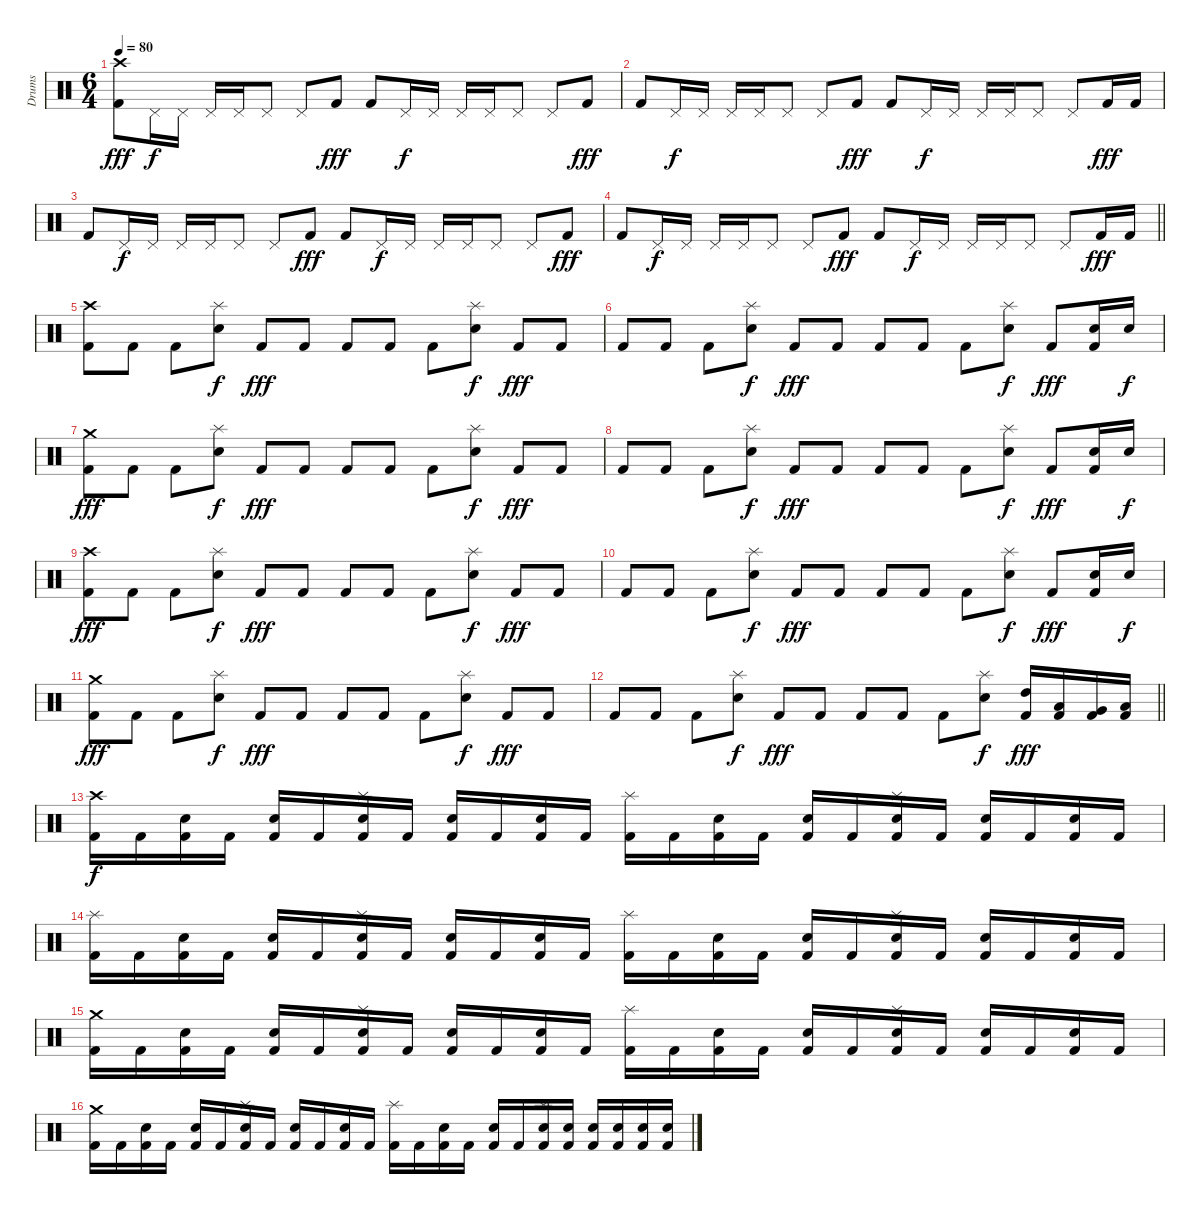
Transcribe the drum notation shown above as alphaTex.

\track ("Drums" "Drums") {instrument percussion}
\staff {score}
\articulation defaults
\ts (6 4)
\tempo 80
\clef neutral
\ks c
("Crash high (hit)" "Kick (hit) 2").8{dy fff} "Pedal Hi-Hat (hit)".16{dy f} "Pedal Hi-Hat (hit)".16 "Pedal Hi-Hat (hit)".16 "Pedal Hi-Hat (hit)".16 "Pedal Hi-Hat (hit)".8 "Pedal Hi-Hat (hit)".8 "Kick (hit) 2".8{dy fff} "Kick (hit) 2".8 "Pedal Hi-Hat (hit)".16{dy f} "Pedal Hi-Hat (hit)".16 "Pedal Hi-Hat (hit)".16 "Pedal Hi-Hat (hit)".16 "Pedal Hi-Hat (hit)".8 "Pedal Hi-Hat (hit)".8 "Kick (hit) 2".8{dy fff} |
"Kick (hit) 2".8 "Pedal Hi-Hat (hit)".16{dy f} "Pedal Hi-Hat (hit)".16 "Pedal Hi-Hat (hit)".16 "Pedal Hi-Hat (hit)".16 "Pedal Hi-Hat (hit)".8 "Pedal Hi-Hat (hit)".8 "Kick (hit) 2".8{dy fff} "Kick (hit) 2".8 "Pedal Hi-Hat (hit)".16{dy f} "Pedal Hi-Hat (hit)".16 "Pedal Hi-Hat (hit)".16 "Pedal Hi-Hat (hit)".16 "Pedal Hi-Hat (hit)".8 "Pedal Hi-Hat (hit)".8 "Kick (hit) 2".16{dy fff} "Kick (hit) 2".16 |
"Kick (hit) 2".8 "Pedal Hi-Hat (hit)".16{dy f} "Pedal Hi-Hat (hit)".16 "Pedal Hi-Hat (hit)".16 "Pedal Hi-Hat (hit)".16 "Pedal Hi-Hat (hit)".8 "Pedal Hi-Hat (hit)".8 "Kick (hit) 2".8{dy fff} "Kick (hit) 2".8 "Pedal Hi-Hat (hit)".16{dy f} "Pedal Hi-Hat (hit)".16 "Pedal Hi-Hat (hit)".16 "Pedal Hi-Hat (hit)".16 "Pedal Hi-Hat (hit)".8 "Pedal Hi-Hat (hit)".8 "Kick (hit) 2".8{dy fff} |
\barLineRight lightlight "Kick (hit) 2".8 "Pedal Hi-Hat (hit)".16{dy f} "Pedal Hi-Hat (hit)".16 "Pedal Hi-Hat (hit)".16 "Pedal Hi-Hat (hit)".16 "Pedal Hi-Hat (hit)".8 "Pedal Hi-Hat (hit)".8 "Kick (hit) 2".8{dy fff} "Kick (hit) 2".8 "Pedal Hi-Hat (hit)".16{dy f} "Pedal Hi-Hat (hit)".16 "Pedal Hi-Hat (hit)".16 "Pedal Hi-Hat (hit)".16 "Pedal Hi-Hat (hit)".8 "Pedal Hi-Hat (hit)".8 "Kick (hit) 2".16{dy fff} "Kick (hit) 2".16
|
\section ("" "")
("Crash high (hit)" "Kick (hit) 2").8 "Kick (hit) 2".8 "Kick (hit) 2".8 ("Splash (hit)" "Snare (hit) 2").8{dy f} "Kick (hit) 2".8{dy fff} "Kick (hit) 2".8 "Kick (hit) 2".8 "Kick (hit) 2".8 "Kick (hit) 2".8 ("Splash (hit)" "Snare (hit) 2").8{dy f} "Kick (hit) 2".8{dy fff} "Kick (hit) 2".8 |
"Kick (hit) 2".8 "Kick (hit) 2".8 "Kick (hit) 2".8 ("Splash (hit)" "Snare (hit) 2").8{dy f} "Kick (hit) 2".8{dy fff} "Kick (hit) 2".8 "Kick (hit) 2".8 "Kick (hit) 2".8 "Kick (hit) 2".8 ("Splash (hit)" "Snare (hit) 2").8{dy f} "Kick (hit) 2".8{dy fff} ("Snare (hit) 2" "Kick (hit) 2").16 "Snare (hit) 2".16{dy f} |
("Crash medium (hit)" "Kick (hit) 2").8{dy fff} "Kick (hit) 2".8 "Kick (hit) 2".8 ("Splash (hit)" "Snare (hit) 2").8{dy f} "Kick (hit) 2".8{dy fff} "Kick (hit) 2".8 "Kick (hit) 2".8 "Kick (hit) 2".8 "Kick (hit) 2".8 ("Splash (hit)" "Snare (hit) 2").8{dy f} "Kick (hit) 2".8{dy fff} "Kick (hit) 2".8 |
"Kick (hit) 2".8 "Kick (hit) 2".8 "Kick (hit) 2".8 ("Splash (hit)" "Snare (hit) 2").8{dy f} "Kick (hit) 2".8{dy fff} "Kick (hit) 2".8 "Kick (hit) 2".8 "Kick (hit) 2".8 "Kick (hit) 2".8 ("Splash (hit)" "Snare (hit) 2").8{dy f} "Kick (hit) 2".8{dy fff} ("Snare (hit) 2" "Kick (hit) 2").16 "Snare (hit) 2".16{dy f} |
("Crash high (hit)" "Kick (hit) 2").8{dy fff} "Kick (hit) 2".8 "Kick (hit) 2".8 ("Splash (hit)" "Snare (hit) 2").8{dy f} "Kick (hit) 2".8{dy fff} "Kick (hit) 2".8 "Kick (hit) 2".8 "Kick (hit) 2".8 "Kick (hit) 2".8 ("Splash (hit)" "Snare (hit) 2").8{dy f} "Kick (hit) 2".8{dy fff} "Kick (hit) 2".8 |
"Kick (hit) 2".8 "Kick (hit) 2".8 "Kick (hit) 2".8 ("Splash (hit)" "Snare (hit) 2").8{dy f} "Kick (hit) 2".8{dy fff} "Kick (hit) 2".8 "Kick (hit) 2".8 "Kick (hit) 2".8 "Kick (hit) 2".8 ("Splash (hit)" "Snare (hit) 2").8{dy f} "Kick (hit) 2".8{dy fff} ("Snare (hit) 2" "Kick (hit) 2").16 "Snare (hit) 2".16{dy f} |
("Crash medium (hit)" "Kick (hit) 2").8{dy fff} "Kick (hit) 2".8 "Kick (hit) 2".8 ("Splash (hit)" "Snare (hit) 2").8{dy f} "Kick (hit) 2".8{dy fff} "Kick (hit) 2".8 "Kick (hit) 2".8 "Kick (hit) 2".8 "Kick (hit) 2".8 ("Splash (hit)" "Snare (hit) 2").8{dy f} "Kick (hit) 2".8{dy fff} "Kick (hit) 2".8 |
\barLineRight lightlight "Kick (hit) 2".8 "Kick (hit) 2".8 "Kick (hit) 2".8
("Splash (hit)" "Snare (hit) 2").8{dy f} "Kick (hit) 2".8{dy fff} "Kick (hit) 2".8 "Kick (hit) 2".8 "Kick (hit) 2".8 "Kick (hit) 2".8 ("Splash (hit)" "Snare (hit) 2").8{dy f} ("High Tom (hit)" "Kick (hit) 2").16{dy fff} ("Low Tom (hit)" "Kick (hit) 2").16 ("Very Low Tom (hit)" "Kick (hit) 2").16 ("Low Floor Tom (hit)" "Kick (hit) 2").16 |
\section ("" "")
("Crash high (hit)" "Kick (hit) 2").16{dy f} "Kick (hit) 2".16 ("Snare (hit) 2" "Kick (hit) 2").16 "Kick (hit) 2".16 ("Snare (hit) 2" "Kick (hit) 2").16 "Kick (hit) 2".16 ("Splash (hit)" "Snare (hit) 2" "Kick (hit) 2").16 "Kick (hit) 2".16 ("Snare (hit) 2" "Kick (hit) 2").16 "Kick (hit) 2".16 ("Snare (hit) 2" "Kick (hit) 2").16 "Kick (hit) 2".16 ("Splash (hit)" "Kick (hit) 2").16 "Kick (hit) 2".16 ("Snare (hit) 2" "Kick (hit) 2").16 "Kick (hit) 2".16 ("Snare (hit) 2" "Kick (hit) 2").16 "Kick (hit) 2".16 ("Splash (hit)" "Snare (hit) 2" "Kick (hit) 2").16 "Kick (hit) 2".16 ("Snare (hit) 2" "Kick (hit) 2").16 "Kick (hit) 2".16 ("Snare (hit) 2" "Kick (hit) 2").16 "Kick (hit) 2".16 |
("Splash (hit)" "Kick (hit) 2").16 "Kick (hit) 2".16 ("Snare (hit) 2" "Kick (hit) 2").16 "Kick (hit) 2".16 ("Snare (hit) 2" "Kick (hit) 2").16 "Kick (hit) 2".16 ("Splash (hit)" "Snare (hit) 2" "Kick (hit) 2").16 "Kick (hit) 2".16 ("Snare (hit) 2" "Kick (hit) 2").16 "Kick (hit) 2".16 ("Snare (hit) 2" "Kick (hit) 2").16 "Kick (hit) 2".16 ("Splash (hit)" "Kick (hit) 2").16 "Kick (hit) 2".16 ("Snare (hit) 2" "Kick (hit) 2").16 "Kick (hit) 2".16 ("Snare (hit) 2" "Kick (hit) 2").16 "Kick (hit) 2".16 ("Splash (hit)" "Snare (hit) 2" "Kick (hit) 2").16 "Kick (hit) 2".16 ("Snare (hit) 2" "Kick (hit) 2").16 "Kick (hit) 2".16 ("Snare (hit) 2" "Kick (hit) 2").16 "Kick (hit) 2".16 |
("Crash medium (hit)" "Kick (hit) 2").16 "Kick (hit) 2".16 ("Snare (hit) 2" "Kick (hit) 2").16 "Kick (hit) 2".16 ("Snare (hit) 2" "Kick (hit) 2").16 "Kick (hit) 2".16 ("Splash (hit)" "Snare (hit) 2" "Kick (hit) 2").16 "Kick (hit) 2".16 ("Snare (hit) 2" "Kick (hit) 2").16 "Kick (hit) 2".16 ("Snare (hit) 2" "Kick (hit) 2").16 "Kick (hit) 2".16 ("Splash (hit)" "Kick (hit) 2").16 "Kick (hit) 2".16 ("Snare (hit) 2" "Kick (hit) 2").16 "Kick (hit) 2".16 ("Snare (hit) 2" "Kick (hit) 2").16 "Kick (hit) 2".16 ("Splash (hit)" "Snare (hit) 2" "Kick (hit) 2").16 "Kick (hit) 2".16 ("Snare (hit) 2" "Kick (hit) 2").16 "Kick (hit) 2".16 ("Snare (hit) 2" "Kick (hit) 2").16 "Kick (hit) 2".16 |
("Crash medium (hit)" "Kick (hit) 2").16 "Kick (hit) 2".16 ("Snare (hit) 2" "Kick (hit) 2").16 "Kick (hit) 2".16 ("Snare (hit) 2" "Kick (hit) 2").16 "Kick (hit) 2".16 ("Splash (hit)" "Snare (hit) 2" "Kick (hit) 2").16 "Kick (hit) 2".16 ("Snare (hit) 2" "Kick (hit) 2").16 "Kick (hit) 2".16 ("Snare (hit) 2" "Kick (hit) 2").16 "Kick (hit) 2".16 ("Splash (hit)" "Kick (hit) 2").16 "Kick (hit) 2".16 ("Snare (hit) 2" "Kick (hit) 2").16 "Kick (hit) 2".16 ("Snare (hit) 2" "Kick (hit) 2").16 "Kick (hit) 2".16 ("Splash (hit)" "Snare (hit) 2" "Kick (hit) 2").16 ("Snare (hit) 2" "Kick (hit) 2").16 ("Snare (hit) 2" "Kick (hit) 2").16 ("Snare (hit) 2" "Kick (hit) 2").16 ("Snare (hit) 2" "Kick (hit) 2").16 ("Snare (hit) 2" "Kick (hit) 2").16
